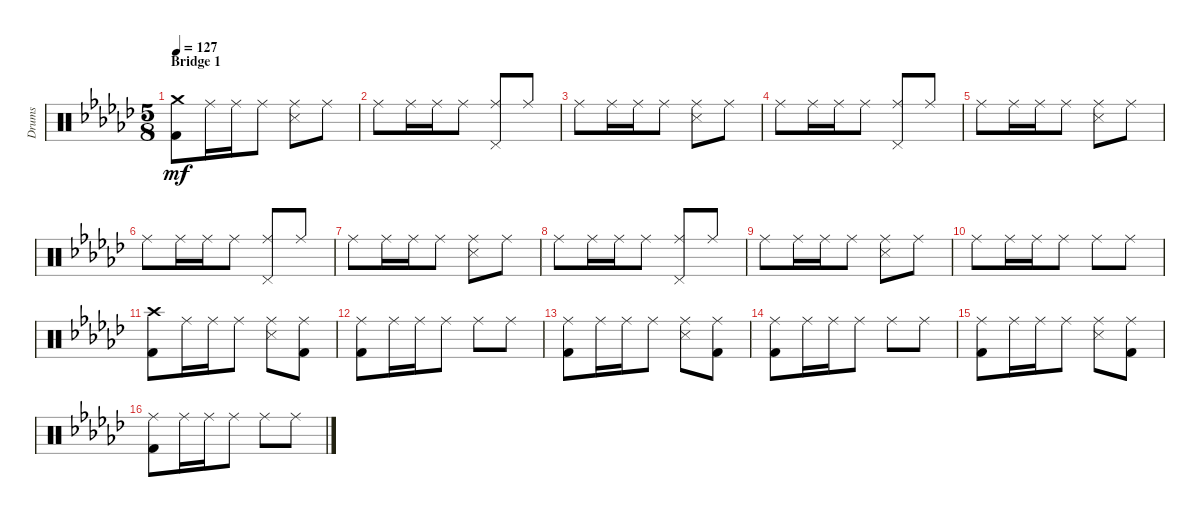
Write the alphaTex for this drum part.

\track ("Drums" "Drums") {instrument percussion}
\staff {score}
\articulation defaults
\ts (5 8)
\section ("" "Bridge 1")
\tempo 127
\clef neutral
\ks ebminor
("Crash medium (hit)" "Kick (hit) 2").8{dy mf} "Ride (middle)".16 "Ride (middle)".16 "Ride (middle)".8 ("Ride (middle)" "Snare (side stick) 3").8 "Ride (middle)".8 |
"Ride (middle)".8 "Ride (middle)".16 "Ride (middle)".16 "Ride (middle)".8 ("Ride (middle)" "Pedal Hi-Hat (hit)").8 "Ride (middle)".8 |
"Ride (middle)".8 "Ride (middle)".16 "Ride (middle)".16 "Ride (middle)".8 ("Ride (middle)" "Snare (side stick) 3").8 "Ride (middle)".8 |
"Ride (middle)".8 "Ride (middle)".16 "Ride (middle)".16 "Ride (middle)".8 ("Ride (middle)" "Pedal Hi-Hat (hit)").8 "Ride (middle)".8 |
"Ride (middle)".8 "Ride (middle)".16 "Ride (middle)".16 "Ride (middle)".8 ("Ride (middle)" "Snare (side stick) 3").8 "Ride (middle)".8 |
"Ride (middle)".8 "Ride (middle)".16 "Ride (middle)".16 "Ride (middle)".8 ("Ride (middle)" "Pedal Hi-Hat (hit)").8 "Ride (middle)".8 |
"Ride (middle)".8 "Ride (middle)".16 "Ride (middle)".16 "Ride (middle)".8 ("Ride (middle)" "Snare (side stick) 3").8 "Ride (middle)".8 |
"Ride (middle)".8 "Ride (middle)".16 "Ride (middle)".16 "Ride (middle)".8 ("Ride (middle)" "Pedal Hi-Hat (hit)").8 "Ride (middle)".8 |
"Ride (middle)".8 "Ride (middle)".16 "Ride (middle)".16 "Ride (middle)".8 ("Ride (middle)" "Snare (side stick) 3").8 "Ride (middle)".8 |
"Ride (middle)".8 "Ride (middle)".16 "Ride (middle)".16 "Ride (middle)".8 "Ride (middle)".8 "Ride (middle)".8 |
("Crash high (hit)" "Kick (hit) 2").8 "Ride (middle)".16 "Ride (middle)".16 "Ride (middle)".8 ("Ride (middle)" "Snare (side stick) 3").8 ("Ride (middle)" "Kick (hit) 2").8 |
("Ride (middle)" "Kick (hit) 2").8 "Ride (middle)".16 "Ride (middle)".16 "Ride (middle)".8 "Ride (middle)".8 "Ride (middle)".8 |
("Ride (middle)" "Kick (hit) 2").8 "Ride (middle)".16 "Ride (middle)".16 "Ride (middle)".8 ("Ride (middle)" "Snare (side stick) 3").8 ("Ride (middle)" "Kick (hit) 2").8 |
("Ride (middle)" "Kick (hit) 2").8 "Ride (middle)".16 "Ride (middle)".16 "Ride (middle)".8 "Ride (middle)".8 "Ride (middle)".8 |
("Ride (middle)" "Kick (hit) 2").8 "Ride (middle)".16 "Ride (middle)".16 "Ride (middle)".8 ("Ride (middle)" "Snare (side stick) 3").8 ("Ride (middle)" "Kick (hit) 2").8 |
("Ride (middle)" "Kick (hit) 2").8 "Ride (middle)".16 "Ride (middle)".16 "Ride (middle)".8 "Ride (middle)".8 "Ride (middle)".8
